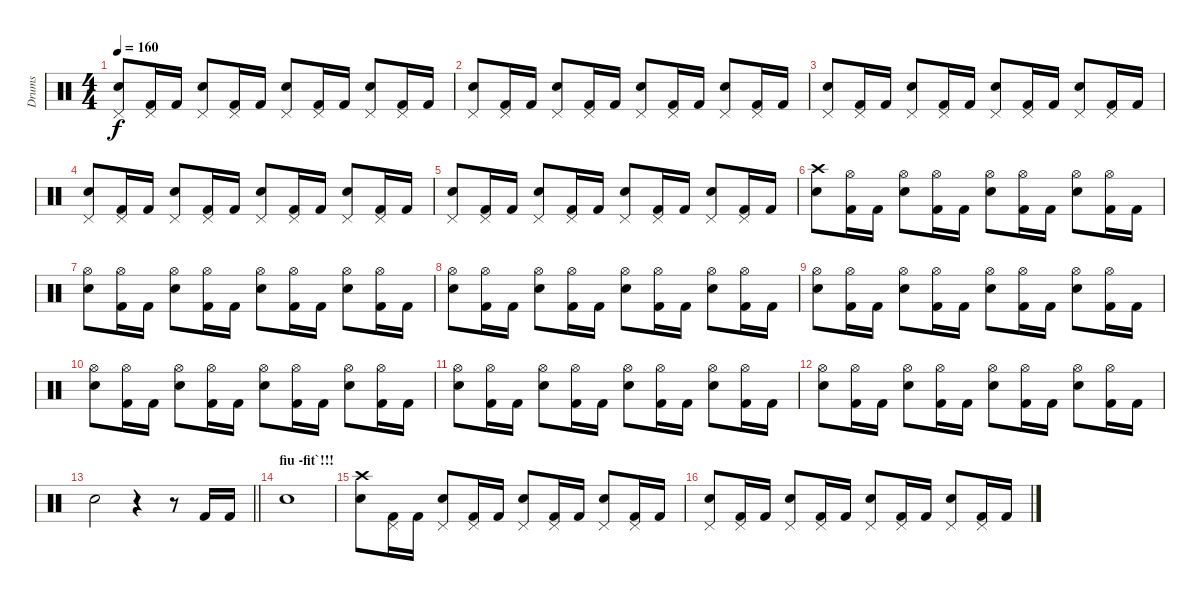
\track ("Drums" "Drums") {instrument percussion}
\staff {score}
\articulation defaults
\ts (4 4)
\tempo 160
\clef neutral
\ks c
("Pedal Hi-Hat (hit)" "Snare (hit) 2").8{dy f} ("Pedal Hi-Hat (hit)" "Kick (hit) 2").16 "Kick (hit) 2".16 ("Pedal Hi-Hat (hit)" "Snare (hit) 2").8 ("Pedal Hi-Hat (hit)" "Kick (hit) 2").16 "Kick (hit) 2".16 ("Pedal Hi-Hat (hit)" "Snare (hit) 2").8 ("Pedal Hi-Hat (hit)" "Kick (hit) 2").16 "Kick (hit) 2".16 ("Pedal Hi-Hat (hit)" "Snare (hit) 2").8 ("Pedal Hi-Hat (hit)" "Kick (hit) 2").16 "Kick (hit) 2".16 |
("Pedal Hi-Hat (hit)" "Snare (hit) 2").8 ("Pedal Hi-Hat (hit)" "Kick (hit) 2").16 "Kick (hit) 2".16 ("Pedal Hi-Hat (hit)" "Snare (hit) 2").8 ("Pedal Hi-Hat (hit)" "Kick (hit) 2").16 "Kick (hit) 2".16 ("Pedal Hi-Hat (hit)" "Snare (hit) 2").8 ("Pedal Hi-Hat (hit)" "Kick (hit) 2").16 "Kick (hit) 2".16 ("Pedal Hi-Hat (hit)" "Snare (hit) 2").8 ("Pedal Hi-Hat (hit)" "Kick (hit) 2").16 "Kick (hit) 2".16 |
("Pedal Hi-Hat (hit)" "Snare (hit) 2").8 ("Pedal Hi-Hat (hit)" "Kick (hit) 2").16 "Kick (hit) 2".16 ("Pedal Hi-Hat (hit)" "Snare (hit) 2").8 ("Pedal Hi-Hat (hit)" "Kick (hit) 2").16 "Kick (hit) 2".16 ("Pedal Hi-Hat (hit)" "Snare (hit) 2").8 ("Pedal Hi-Hat (hit)" "Kick (hit) 2").16 "Kick (hit) 2".16 ("Pedal Hi-Hat (hit)" "Snare (hit) 2").8 ("Pedal Hi-Hat (hit)" "Kick (hit) 2").16 "Kick (hit) 2".16 |
("Pedal Hi-Hat (hit)" "Snare (hit) 2").8 ("Pedal Hi-Hat (hit)" "Kick (hit) 2").16 "Kick (hit) 2".16 ("Pedal Hi-Hat (hit)" "Snare (hit) 2").8 ("Pedal Hi-Hat (hit)" "Kick (hit) 2").16 "Kick (hit) 2".16 ("Pedal Hi-Hat (hit)" "Snare (hit) 2").8 ("Pedal Hi-Hat (hit)" "Kick (hit) 2").16 "Kick (hit) 2".16 ("Pedal Hi-Hat (hit)" "Snare (hit) 2").8 ("Pedal Hi-Hat (hit)" "Kick (hit) 2").16 "Kick (hit) 2".16 |
("Pedal Hi-Hat (hit)" "Snare (hit) 2").8 ("Pedal Hi-Hat (hit)" "Kick (hit) 2").16 "Kick (hit) 2".16 ("Pedal Hi-Hat (hit)" "Snare (hit) 2").8 ("Pedal Hi-Hat (hit)" "Kick (hit) 2").16 "Kick (hit) 2".16 ("Pedal Hi-Hat (hit)" "Snare (hit) 2").8 ("Pedal Hi-Hat (hit)" "Kick (hit) 2").16 "Kick (hit) 2".16 ("Pedal Hi-Hat (hit)" "Snare (hit) 2").8 ("Pedal Hi-Hat (hit)" "Kick (hit) 2").16 "Kick (hit) 2".16 |
("Crash high (hit)" "Snare (hit) 2").8 ("Hi-Hat (open)" "Kick (hit) 2").16 "Kick (hit) 2".16 ("Hi-Hat (open)" "Snare (hit) 2").8 ("Hi-Hat (open)" "Kick (hit) 2").16 "Kick (hit) 2".16 ("Hi-Hat (open)" "Snare (hit) 2").8 ("Hi-Hat (open)" "Kick (hit) 2").16 "Kick (hit) 2".16 ("Hi-Hat (open)" "Snare (hit) 2").8 ("Hi-Hat (open)" "Kick (hit) 2").16 "Kick (hit) 2".16 |
("Hi-Hat (open)" "Snare (hit) 2").8 ("Hi-Hat (open)" "Kick (hit) 2").16 "Kick (hit) 2".16 ("Hi-Hat (open)" "Snare (hit) 2").8 ("Hi-Hat (open)" "Kick (hit) 2").16 "Kick (hit) 2".16 ("Hi-Hat (open)" "Snare (hit) 2").8 ("Hi-Hat (open)" "Kick (hit) 2").16 "Kick (hit) 2".16 ("Hi-Hat (open)" "Snare (hit) 2").8 ("Hi-Hat (open)" "Kick (hit) 2").16 "Kick (hit) 2".16 |
("Hi-Hat (open)" "Snare (hit) 2").8 ("Hi-Hat (open)" "Kick (hit) 2").16 "Kick (hit) 2".16 ("Hi-Hat (open)" "Snare (hit) 2").8 ("Hi-Hat (open)" "Kick (hit) 2").16 "Kick (hit) 2".16 ("Hi-Hat (open)" "Snare (hit) 2").8 ("Hi-Hat (open)" "Kick (hit) 2").16 "Kick (hit) 2".16 ("Hi-Hat (open)" "Snare (hit) 2").8 ("Hi-Hat (open)" "Kick (hit) 2").16 "Kick (hit) 2".16 |
("Hi-Hat (open)" "Snare (hit) 2").8 ("Hi-Hat (open)" "Kick (hit) 2").16 "Kick (hit) 2".16 ("Hi-Hat (open)" "Snare (hit) 2").8 ("Hi-Hat (open)" "Kick (hit) 2").16 "Kick (hit) 2".16 ("Hi-Hat (open)" "Snare (hit) 2").8 ("Hi-Hat (open)" "Kick (hit) 2").16 "Kick (hit) 2".16 ("Hi-Hat (open)" "Snare (hit) 2").8 ("Hi-Hat (open)" "Kick (hit) 2").16 "Kick (hit) 2".16 |
("Hi-Hat (open)" "Snare (hit) 2").8 ("Hi-Hat (open)" "Kick (hit) 2").16 "Kick (hit) 2".16 ("Hi-Hat (open)" "Snare (hit) 2").8 ("Hi-Hat (open)" "Kick (hit) 2").16 "Kick (hit) 2".16 ("Hi-Hat (open)" "Snare (hit) 2").8 ("Hi-Hat (open)" "Kick (hit) 2").16 "Kick (hit) 2".16 ("Hi-Hat (open)" "Snare (hit) 2").8 ("Hi-Hat (open)" "Kick (hit) 2").16 "Kick (hit) 2".16 |
("Hi-Hat (open)" "Snare (hit) 2").8 ("Hi-Hat (open)" "Kick (hit) 2").16 "Kick (hit) 2".16 ("Hi-Hat (open)" "Snare (hit) 2").8 ("Hi-Hat (open)" "Kick (hit) 2").16 "Kick (hit) 2".16 ("Hi-Hat (open)" "Snare (hit) 2").8 ("Hi-Hat (open)" "Kick (hit) 2").16 "Kick (hit) 2".16 ("Hi-Hat (open)" "Snare (hit) 2").8 ("Hi-Hat (open)" "Kick (hit) 2").16 "Kick (hit) 2".16 |
("Hi-Hat (open)" "Snare (hit) 2").8 ("Hi-Hat (open)" "Kick (hit) 2").16 "Kick (hit) 2".16 ("Hi-Hat (open)" "Snare (hit) 2").8 ("Hi-Hat (open)" "Kick (hit) 2").16 "Kick (hit) 2".16 ("Hi-Hat (open)" "Snare (hit) 2").8 ("Hi-Hat (open)" "Kick (hit) 2").16 "Kick (hit) 2".16 ("Hi-Hat (open)" "Snare (hit) 2").8 ("Hi-Hat (open)" "Kick (hit) 2").16 "Kick (hit) 2".16 |
\barLineRight lightlight "Snare (hit) 2".2
r.4 r.8 "Kick (hit) 2".16 "Kick (hit) 2".16 |
\section ("" "fiu -fit`!!!")
"Snare (hit) 2".1 |
("Crash high (hit)" "Snare (hit) 2").8 ("Pedal Hi-Hat (hit)" "Kick (hit) 2").16 "Kick (hit) 2".16 ("Pedal Hi-Hat (hit)" "Snare (hit) 2").8 ("Pedal Hi-Hat (hit)" "Kick (hit) 2").16 "Kick (hit) 2".16 ("Pedal Hi-Hat (hit)" "Snare (hit) 2").8 ("Pedal Hi-Hat (hit)" "Kick (hit) 2").16 "Kick (hit) 2".16 ("Pedal Hi-Hat (hit)" "Snare (hit) 2").8 ("Pedal Hi-Hat (hit)" "Kick (hit) 2").16 "Kick (hit) 2".16 |
("Pedal Hi-Hat (hit)" "Snare (hit) 2").8 ("Pedal Hi-Hat (hit)" "Kick (hit) 2").16 "Kick (hit) 2".16 ("Pedal Hi-Hat (hit)" "Snare (hit) 2").8 ("Pedal Hi-Hat (hit)" "Kick (hit) 2").16 "Kick (hit) 2".16 ("Pedal Hi-Hat (hit)" "Snare (hit) 2").8 ("Pedal Hi-Hat (hit)" "Kick (hit) 2").16 "Kick (hit) 2".16 ("Pedal Hi-Hat (hit)" "Snare (hit) 2").8 ("Pedal Hi-Hat (hit)" "Kick (hit) 2").16 "Kick (hit) 2".16
